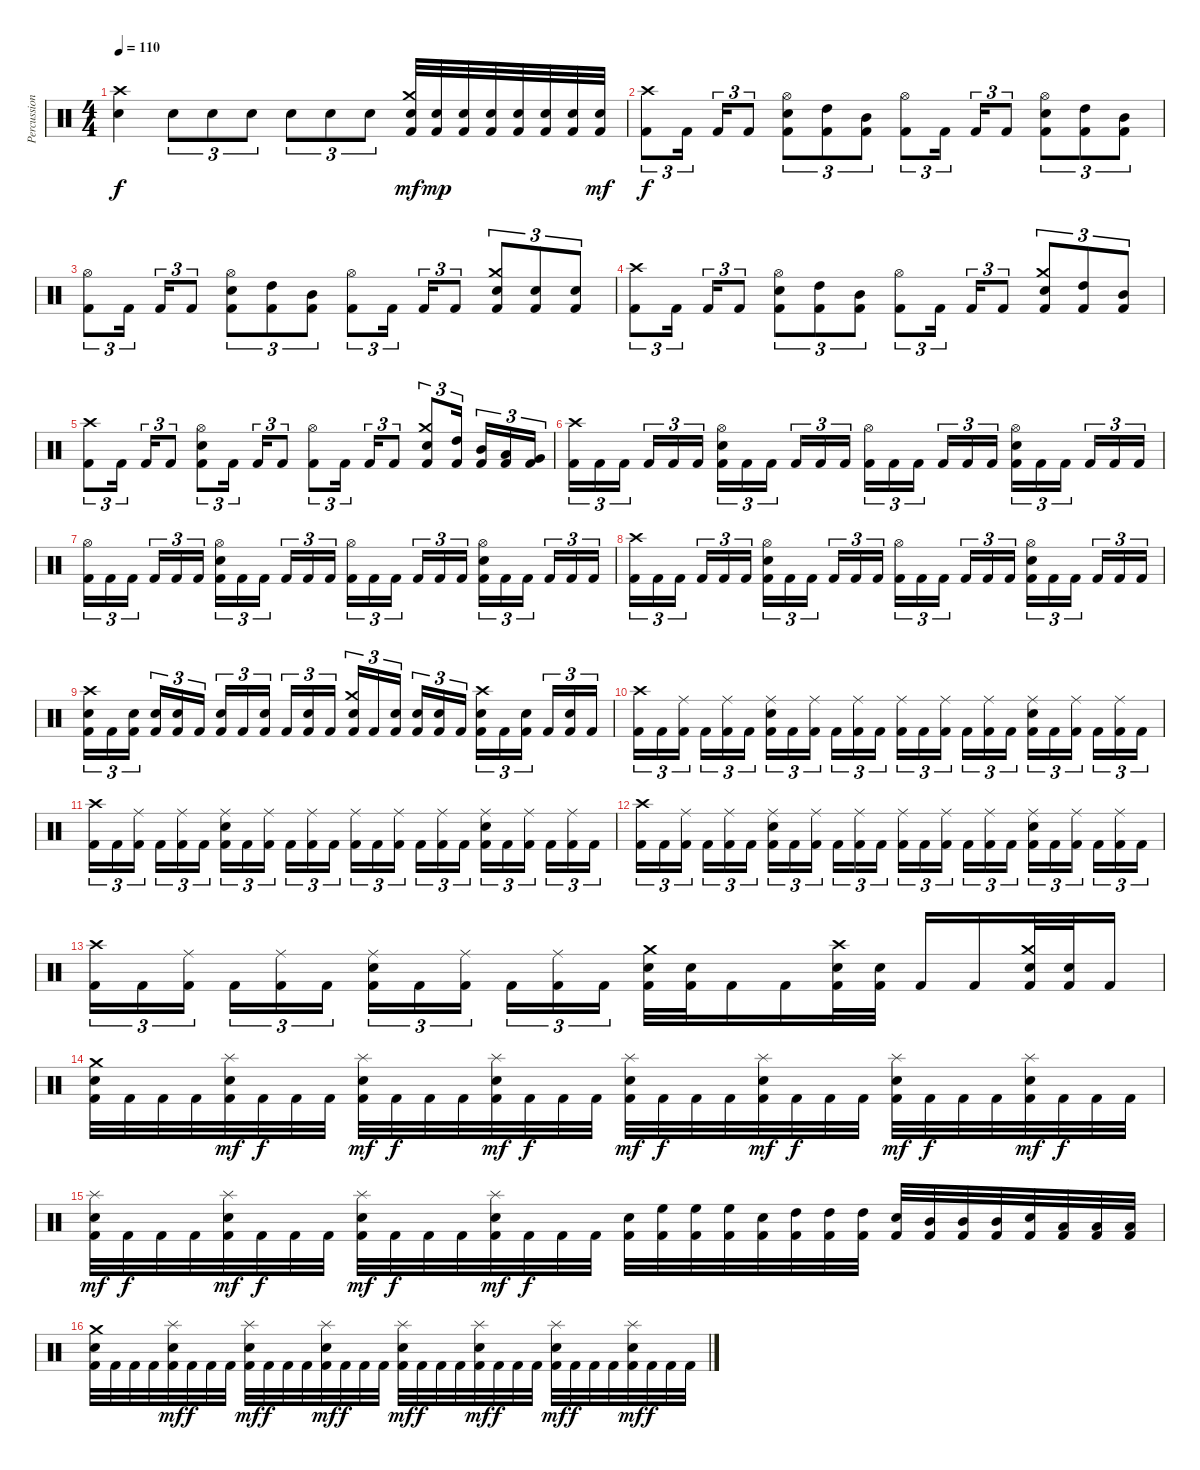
\track ("Percussion" "Percussion") {instrument percussion}
\staff {score}
\articulation defaults
\ts (4 4)
\tempo 110
\clef neutral
\ks c
("Crash high (hit)" "Snare (hit) 2").4{dy f} "Snare (hit) 2".8{tu (3 2)} "Snare (hit) 2".8{tu (3 2)} "Snare (hit) 2".8{tu (3 2)} "Snare (hit) 2".8{tu (3 2)} "Snare (hit) 2".8{tu (3 2)} "Snare (hit) 2".8{tu (3 2)} ("Crash medium (hit)" "Snare (hit) 2" "Kick (hit) 2").32{dy mf} ("Snare (hit) 2" "Kick (hit) 2").32{dy mp} ("Snare (hit) 2" "Kick (hit) 2").32 ("Snare (hit) 2" "Kick (hit) 2").32 ("Snare (hit) 2" "Kick (hit) 2").32 ("Snare (hit) 2" "Kick (hit) 2").32 ("Snare (hit) 2" "Kick (hit) 2").32 ("Snare (hit) 2" "Kick (hit) 2").32{dy mf} |
("Crash high (hit)" "Kick (hit) 2").8{tu (3 2) dy f} "Kick (hit) 2".16{tu (3 2)} "Kick (hit) 2".16{tu (3 2)} "Kick (hit) 2".8{tu (3 2)} ("Hi-Hat (open)" "Snare (hit) 2" "Kick (hit) 2").8{tu (3 2)} ("High Tom (hit)" "Kick (hit) 2").8{tu (3 2)} ("Mid Tom (hit)" "Kick (hit) 2").8{tu (3 2)} ("Hi-Hat (open)" "Kick (hit) 2").8{tu (3 2)} "Kick (hit) 2".16{tu (3 2)} "Kick (hit) 2".16{tu (3 2)} "Kick (hit) 2".8{tu (3 2)} ("Hi-Hat (open)" "Snare (hit) 2" "Kick (hit) 2").8{tu (3 2)} ("High Tom (hit)" "Kick (hit) 2").8{tu (3 2)} ("Mid Tom (hit)" "Kick (hit) 2").8{tu (3 2)} |
("Hi-Hat (open)" "Kick (hit) 2").8{tu (3 2)} "Kick (hit) 2".16{tu (3 2)} "Kick (hit) 2".16{tu (3 2)} "Kick (hit) 2".8{tu (3 2)} ("Hi-Hat (open)" "Snare (hit) 2" "Kick (hit) 2").8{tu (3 2)} ("High Tom (hit)" "Kick (hit) 2").8{tu (3 2)} ("Mid Tom (hit)" "Kick (hit) 2").8{tu (3 2)} ("Hi-Hat (open)" "Kick (hit) 2").8{tu (3 2)} "Kick (hit) 2".16{tu (3 2)} "Kick (hit) 2".16{tu (3 2)} "Kick (hit) 2".8{tu (3 2)} ("Crash medium (hit)" "Snare (hit) 2" "Kick (hit) 2").8{tu (3 2)} ("Snare (hit) 2" "Kick (hit) 2").8{tu (3 2)} ("Snare (hit) 2" "Kick (hit) 2").8{tu (3 2)} |
("Crash high (hit)" "Kick (hit) 2").8{tu (3 2)} "Kick (hit) 2".16{tu (3 2)} "Kick (hit) 2".16{tu (3 2)} "Kick (hit) 2".8{tu (3 2)} ("Hi-Hat (open)" "Snare (hit) 2" "Kick (hit) 2").8{tu (3 2)} ("High Tom (hit)" "Kick (hit) 2").8{tu (3 2)} ("Mid Tom (hit)" "Kick (hit) 2").8{tu (3 2)} ("Hi-Hat (open)" "Kick (hit) 2").8{tu (3 2)} "Kick (hit) 2".16{tu (3 2)} "Kick (hit) 2".16{tu (3 2)} "Kick (hit) 2".8{tu (3 2)} ("Crash medium (hit)" "Snare (hit) 2" "Kick (hit) 2").8{tu (3 2)} ("High Tom (hit)" "Kick (hit) 2").8{tu (3 2)} ("Mid Tom (hit)" "Kick (hit) 2").8{tu (3 2)} |
("Crash high (hit)" "Kick (hit) 2").8{tu (3 2)} "Kick (hit) 2".16{tu (3 2)} "Kick (hit) 2".16{tu (3 2)} "Kick (hit) 2".8{tu (3 2)} ("Hi-Hat (open)" "Snare (hit) 2" "Kick (hit) 2").8{tu (3 2)} "Kick (hit) 2".16{tu (3 2)} "Kick (hit) 2".16{tu (3 2)} "Kick (hit) 2".8{tu (3 2)} ("Hi-Hat (open)" "Kick (hit) 2").8{tu (3 2)} "Kick (hit) 2".16{tu (3 2)} "Kick (hit) 2".16{tu (3 2)} "Kick (hit) 2".8{tu (3 2)} ("Crash medium (hit)" "Snare (hit) 2" "Kick (hit) 2").8{tu (3 2)} ("High Tom (hit)" "Kick (hit) 2").16{tu (3 2)} ("Mid Tom (hit)" "Kick (hit) 2").16{tu (3 2)} ("Low Tom (hit)" "Kick (hit) 2").16{tu (3 2)} ("Very Low Tom (hit)" "Kick (hit) 2").16{tu (3 2)} |
\section ("" "")
("Crash high (hit)" "Kick (hit) 2").16{tu (3 2)} "Kick (hit) 2".16{tu (3 2)} "Kick (hit) 2".16{tu (3 2)} "Kick (hit) 2".16{tu (3 2)} "Kick (hit) 2".16{tu (3 2)} "Kick (hit) 2".16{tu (3 2)} ("Hi-Hat (open)" "Snare (hit) 2" "Kick (hit) 2").16{tu (3 2)} "Kick (hit) 2".16{tu (3 2)} "Kick (hit) 2".16{tu (3 2)} "Kick (hit) 2".16{tu (3 2)} "Kick (hit) 2".16{tu (3 2)} "Kick (hit) 2".16{tu (3 2)} ("Hi-Hat (open)" "Kick (hit) 2").16{tu (3 2)} "Kick (hit) 2".16{tu (3 2)} "Kick (hit) 2".16{tu (3 2)} "Kick (hit) 2".16{tu (3 2)} "Kick (hit) 2".16{tu (3 2)} "Kick (hit) 2".16{tu (3 2)} ("Hi-Hat (open)" "Snare (hit) 2" "Kick (hit) 2").16{tu (3 2)} "Kick (hit) 2".16{tu (3 2)} "Kick (hit) 2".16{tu (3 2)} "Kick (hit) 2".16{tu (3 2)} "Kick (hit) 2".16{tu (3 2)} "Kick (hit) 2".16{tu (3 2)} |
("Hi-Hat (open)" "Kick (hit) 2").16{tu (3 2)} "Kick (hit) 2".16{tu (3 2)} "Kick (hit) 2".16{tu (3 2)} "Kick (hit) 2".16{tu (3 2)} "Kick (hit) 2".16{tu (3 2)} "Kick (hit) 2".16{tu (3 2)} ("Hi-Hat (open)" "Snare (hit) 2" "Kick (hit) 2").16{tu (3 2)} "Kick (hit) 2".16{tu (3 2)} "Kick (hit) 2".16{tu (3 2)} "Kick (hit) 2".16{tu (3 2)} "Kick (hit) 2".16{tu (3 2)} "Kick (hit) 2".16{tu (3 2)} ("Hi-Hat (open)" "Kick (hit) 2").16{tu (3 2)} "Kick (hit) 2".16{tu (3 2)} "Kick (hit) 2".16{tu (3 2)} "Kick (hit) 2".16{tu (3 2)} "Kick (hit) 2".16{tu (3 2)} "Kick (hit) 2".16{tu (3 2)} ("Hi-Hat (open)" "Snare (hit) 2" "Kick (hit) 2").16{tu (3 2)} "Kick (hit) 2".16{tu (3 2)} "Kick (hit) 2".16{tu (3 2)} "Kick (hit) 2".16{tu (3 2)} "Kick (hit) 2".16{tu (3 2)} "Kick (hit) 2".16{tu (3 2)} |
("Crash high (hit)" "Kick (hit) 2").16{tu (3 2)} "Kick (hit) 2".16{tu (3 2)} "Kick (hit) 2".16{tu (3 2)} "Kick (hit) 2".16{tu (3 2)} "Kick (hit) 2".16{tu (3 2)} "Kick (hit) 2".16{tu (3 2)} ("Hi-Hat (open)" "Snare (hit) 2" "Kick (hit) 2").16{tu (3 2)} "Kick (hit) 2".16{tu (3 2)} "Kick (hit) 2".16{tu (3 2)} "Kick (hit) 2".16{tu (3 2)} "Kick (hit) 2".16{tu (3 2)} "Kick (hit) 2".16{tu (3 2)} ("Hi-Hat (open)" "Kick (hit) 2").16{tu (3 2)} "Kick (hit) 2".16{tu (3 2)} "Kick (hit) 2".16{tu (3 2)} "Kick (hit) 2".16{tu (3 2)} "Kick (hit) 2".16{tu (3 2)} "Kick (hit) 2".16{tu (3 2)} ("Hi-Hat (open)" "Snare (hit) 2" "Kick (hit) 2").16{tu (3 2)} "Kick (hit) 2".16{tu (3 2)} "Kick (hit) 2".16{tu (3 2)} "Kick (hit) 2".16{tu (3 2)} "Kick (hit) 2".16{tu (3 2)} "Kick (hit) 2".16{tu (3 2)} |
("Crash high (hit)" "Snare (hit) 2" "Kick (hit) 2").16{tu (3 2)} "Kick (hit) 2".16{tu (3 2)} ("Snare (hit) 2" "Kick (hit) 2").16{tu (3 2)} ("Snare (hit) 2" "Kick (hit) 2").16{tu (3 2)} ("Snare (hit) 2" "Kick (hit) 2").16{tu (3 2)} "Kick (hit) 2".16{tu (3 2)} ("Snare (hit) 2" "Kick (hit) 2").16{tu (3 2)} "Kick (hit) 2".16{tu (3 2)} ("Snare (hit) 2" "Kick (hit) 2").16{tu (3 2)} "Kick (hit) 2".16{tu (3 2)} ("Snare (hit) 2" "Kick (hit) 2").16{tu (3 2)} "Kick (hit) 2".16{tu (3 2)} ("Crash medium (hit)" "Snare (hit) 2" "Kick (hit) 2").16{tu (3 2)} "Kick (hit) 2".16{tu (3 2)} ("Snare (hit) 2" "Kick (hit) 2").16{tu (3 2)} ("Snare (hit) 2" "Kick (hit) 2").16{tu (3 2)} ("Snare (hit) 2" "Kick (hit) 2").16{tu (3 2)} "Kick (hit) 2".16{tu (3 2)} ("Crash high (hit)" "Snare (hit) 2" "Kick (hit) 2").16{tu (3 2)} "Kick (hit) 2".16{tu (3 2)} ("Snare (hit) 2" "Kick (hit) 2").16{tu (3 2)} "Kick (hit) 2".16{tu (3 2)} ("Snare (hit) 2" "Kick (hit) 2").16{tu (3 2)} "Kick (hit) 2".16{tu (3 2)} |
("Crash high (hit)" "Kick (hit) 2").16{tu (3 2)} "Kick (hit) 2".16{tu (3 2)} ("Ride (middle)" "Kick (hit) 2").16{tu (3 2)} "Kick (hit) 2".16{tu (3 2)} ("Ride (middle)" "Kick (hit) 2").16{tu (3 2)} "Kick (hit) 2".16{tu (3 2)} ("Ride (middle)" "Snare (hit) 2" "Kick (hit) 2").16{tu (3 2)} "Kick (hit) 2".16{tu (3 2)} ("Ride (middle)" "Kick (hit) 2").16{tu (3 2)} "Kick (hit) 2".16{tu (3 2)} ("Ride (middle)" "Kick (hit) 2").16{tu (3 2)} "Kick (hit) 2".16{tu (3 2)} ("Ride (middle)" "Kick (hit) 2").16{tu (3 2)} "Kick (hit) 2".16{tu (3 2)} ("Ride (middle)" "Kick (hit) 2").16{tu (3 2)} "Kick (hit) 2".16{tu (3 2)} ("Ride (middle)" "Kick (hit) 2").16{tu (3 2)} "Kick (hit) 2".16{tu (3 2)} ("Ride (middle)" "Snare (hit) 2" "Kick (hit) 2").16{tu (3 2)} "Kick (hit) 2".16{tu (3 2)} ("Ride (middle)" "Kick (hit) 2").16{tu (3 2)} "Kick (hit) 2".16{tu (3 2)} ("Ride (middle)" "Kick (hit) 2").16{tu (3 2)} "Kick (hit) 2".16{tu (3 2)} |
("Crash high (hit)" "Kick (hit) 2").16{tu (3 2)} "Kick (hit) 2".16{tu (3 2)} ("Ride (middle)" "Kick (hit) 2").16{tu (3 2)} "Kick (hit) 2".16{tu (3 2)} ("Ride (middle)" "Kick (hit) 2").16{tu (3 2)} "Kick (hit) 2".16{tu (3 2)} ("Ride (middle)" "Snare (hit) 2" "Kick (hit) 2").16{tu (3 2)} "Kick (hit) 2".16{tu (3 2)} ("Ride (middle)" "Kick (hit) 2").16{tu (3 2)} "Kick (hit) 2".16{tu (3 2)} ("Ride (middle)" "Kick (hit) 2").16{tu (3 2)} "Kick (hit) 2".16{tu (3 2)} ("Ride (middle)" "Kick (hit) 2").16{tu (3 2)} "Kick (hit) 2".16{tu (3 2)} ("Ride (middle)" "Kick (hit) 2").16{tu (3 2)} "Kick (hit) 2".16{tu (3 2)} ("Ride (middle)" "Kick (hit) 2").16{tu (3 2)} "Kick (hit) 2".16{tu (3 2)} ("Ride (middle)" "Snare (hit) 2" "Kick (hit) 2").16{tu (3 2)} "Kick (hit) 2".16{tu (3 2)} ("Ride (middle)" "Kick (hit) 2").16{tu (3 2)} "Kick (hit) 2".16{tu (3 2)} ("Ride (middle)" "Kick (hit) 2").16{tu (3 2)} "Kick (hit) 2".16{tu (3 2)} |
("Crash high (hit)" "Kick (hit) 2").16{tu (3 2)} "Kick (hit) 2".16{tu (3 2)} ("Ride (middle)" "Kick (hit) 2").16{tu (3 2)} "Kick (hit) 2".16{tu (3 2)} ("Ride (middle)" "Kick (hit) 2").16{tu (3 2)} "Kick (hit) 2".16{tu (3 2)} ("Ride (middle)" "Snare (hit) 2" "Kick (hit) 2").16{tu (3 2)} "Kick (hit) 2".16{tu (3 2)} ("Ride (middle)" "Kick (hit) 2").16{tu (3 2)} "Kick (hit) 2".16{tu (3 2)} ("Ride (middle)" "Kick (hit) 2").16{tu (3 2)} "Kick (hit) 2".16{tu (3 2)} ("Ride (middle)" "Kick (hit) 2").16{tu (3 2)} "Kick (hit) 2".16{tu (3 2)} ("Ride (middle)" "Kick (hit) 2").16{tu (3 2)} "Kick (hit) 2".16{tu (3 2)} ("Ride (middle)" "Kick (hit) 2").16{tu (3 2)} "Kick (hit) 2".16{tu (3 2)} ("Ride (middle)" "Snare (hit) 2" "Kick (hit) 2").16{tu (3 2)} "Kick (hit) 2".16{tu (3 2)} ("Ride (middle)" "Kick (hit) 2").16{tu (3 2)} "Kick (hit) 2".16{tu (3 2)} ("Ride (middle)" "Kick (hit) 2").16{tu (3 2)} "Kick (hit) 2".16{tu (3 2)} |
("Crash high (hit)" "Kick (hit) 2").16{tu (3 2)} "Kick (hit) 2".16{tu (3 2)} ("Ride (middle)" "Kick (hit) 2").16{tu (3 2)} "Kick (hit) 2".16{tu (3 2)} ("Ride (middle)" "Kick (hit) 2").16{tu (3 2)} "Kick (hit) 2".16{tu (3 2)} ("Ride (middle)" "Snare (hit) 2" "Kick (hit) 2").16{tu (3 2)} "Kick (hit) 2".16{tu (3 2)} ("Ride (middle)" "Kick (hit) 2").16{tu (3 2)} "Kick (hit) 2".16{tu (3 2)} ("Ride (middle)" "Kick (hit) 2").16{tu (3 2)} "Kick (hit) 2".16{tu (3 2)} ("Crash medium (hit)" "Snare (hit) 2" "Kick (hit) 2").32 ("Snare (hit) 2" "Kick (hit) 2").32 "Kick (hit) 2".16 "Kick (hit) 2".16 ("Crash high (hit)" "Snare (hit) 2" "Kick (hit) 2").32 ("Snare (hit) 2" "Kick (hit) 2").32 "Kick (hit) 2".16 "Kick (hit) 2".16 ("Crash medium (hit)" "Snare (hit) 2" "Kick (hit) 2").32 ("Snare (hit) 2" "Kick (hit) 2").32 "Kick (hit) 2".16 |
("Crash medium (hit)" "Kick (hit) 2" "Snare (hit) 2").32 "Kick (hit) 2".32 "Kick (hit) 2".32 "Kick (hit) 2".32 ("Splash (hit)" "Kick (hit) 2" "Snare (hit) 2").32{dy mf} "Kick (hit) 2".32{dy f} "Kick (hit) 2".32 "Kick (hit) 2".32 ("Splash (hit)" "Kick (hit) 2" "Snare (hit) 2").32{dy mf} "Kick (hit) 2".32{dy f} "Kick (hit) 2".32 "Kick (hit) 2".32 ("Splash (hit)" "Kick (hit) 2" "Snare (hit) 2").32{dy mf} "Kick (hit) 2".32{dy f} "Kick (hit) 2".32 "Kick (hit) 2".32 ("Splash (hit)" "Kick (hit) 2" "Snare (hit) 2").32{dy mf} "Kick (hit) 2".32{dy f} "Kick (hit) 2".32 "Kick (hit) 2".32 ("Splash (hit)" "Kick (hit) 2" "Snare (hit) 2").32{dy mf} "Kick (hit) 2".32{dy f} "Kick (hit) 2".32 "Kick (hit) 2".32 ("Splash (hit)" "Kick (hit) 2" "Snare (hit) 2").32{dy mf} "Kick (hit) 2".32{dy f} "Kick (hit) 2".32 "Kick (hit) 2".32 ("Splash (hit)" "Kick (hit) 2" "Snare (hit) 2").32{dy mf} "Kick (hit) 2".32{dy f} "Kick (hit) 2".32 "Kick (hit) 2".32 |
("Splash (hit)" "Kick (hit) 2" "Snare (hit) 2").32{dy mf} "Kick (hit) 2".32{dy f} "Kick (hit) 2".32 "Kick (hit) 2".32 ("Splash (hit)" "Kick (hit) 2" "Snare (hit) 2").32{dy mf} "Kick (hit) 2".32{dy f} "Kick (hit) 2".32 "Kick (hit) 2".32 ("Splash (hit)" "Kick (hit) 2" "Snare (hit) 2").32{dy mf} "Kick (hit) 2".32{dy f} "Kick (hit) 2".32 "Kick (hit) 2".32 ("Splash (hit)" "Kick (hit) 2" "Snare (hit) 2").32{dy mf} "Kick (hit) 2".32{dy f} "Kick (hit) 2".32 "Kick (hit) 2".32 ("Kick (hit) 2" "Snare (hit) 2").32 ("High Floor Tom (hit)" "Kick (hit) 2").32 ("High Floor Tom (hit)" "Kick (hit) 2").32 ("High Floor Tom (hit)" "Kick (hit) 2").32 ("Kick (hit) 2" "Snare (hit) 2").32 ("High Tom (hit)" "Kick (hit) 2").32 ("High Tom (hit)" "Kick (hit) 2").32 ("High Tom (hit)" "Kick (hit) 2").32 ("Kick (hit) 2" "Snare (hit) 2").32 ("Mid Tom (hit)" "Kick (hit) 2").32 ("Mid Tom (hit)" "Kick (hit) 2").32 ("Mid Tom (hit)" "Kick (hit) 2").32 ("Kick (hit) 2" "Snare (hit) 2").32 ("Low Tom (hit)" "Kick (hit) 2").32 ("Low Tom (hit)" "Kick (hit) 2").32 ("Low Tom (hit)" "Kick (hit) 2").32 |
("Crash medium (hit)" "Kick (hit) 2" "Snare (hit) 2").32 "Kick (hit) 2".32 "Kick (hit) 2".32 "Kick (hit) 2".32 ("Splash (hit)" "Kick (hit) 2" "Snare (hit) 2").32{dy mf} "Kick (hit) 2".32{dy f} "Kick (hit) 2".32 "Kick (hit) 2".32 ("Splash (hit)" "Kick (hit) 2" "Snare (hit) 2").32{dy mf} "Kick (hit) 2".32{dy f} "Kick (hit) 2".32 "Kick (hit) 2".32 ("Splash (hit)" "Kick (hit) 2" "Snare (hit) 2").32{dy mf} "Kick (hit) 2".32{dy f} "Kick (hit) 2".32 "Kick (hit) 2".32 ("Splash (hit)" "Kick (hit) 2" "Snare (hit) 2").32{dy mf} "Kick (hit) 2".32{dy f} "Kick (hit) 2".32 "Kick (hit) 2".32 ("Splash (hit)" "Kick (hit) 2" "Snare (hit) 2").32{dy mf} "Kick (hit) 2".32{dy f} "Kick (hit) 2".32 "Kick (hit) 2".32 ("Splash (hit)" "Kick (hit) 2" "Snare (hit) 2").32{dy mf} "Kick (hit) 2".32{dy f} "Kick (hit) 2".32 "Kick (hit) 2".32 ("Splash (hit)" "Kick (hit) 2" "Snare (hit) 2").32{dy mf} "Kick (hit) 2".32{dy f} "Kick (hit) 2".32 "Kick (hit) 2".32
